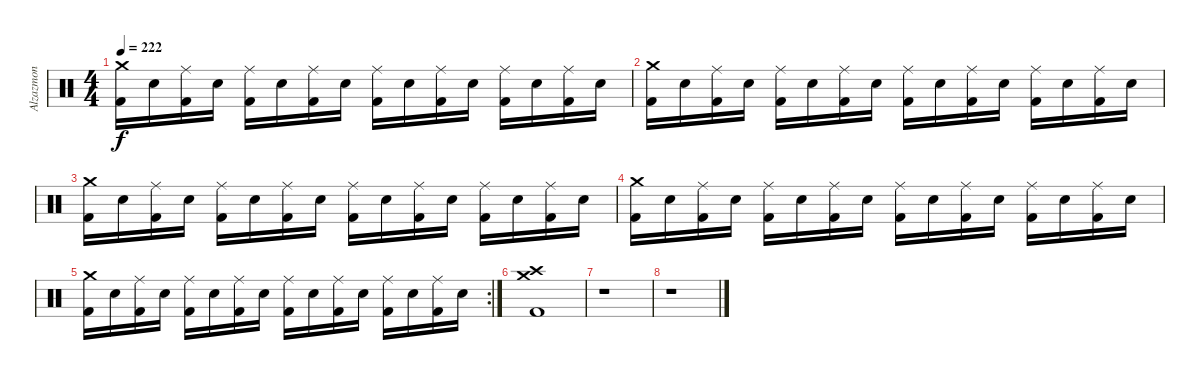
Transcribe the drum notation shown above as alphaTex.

\track ("Alzazmon" "Alzazmon") {instrument percussion}
\staff {score}
\articulation defaults
\ts (4 4)
\tempo 222
\clef neutral
\ks c
("Crash medium (hit)" "Kick (hit) 2").16{dy f} "Snare (hit) 2".16 ("Ride (middle)" "Kick (hit) 2").16 "Snare (hit) 2".16 ("Ride (middle)" "Kick (hit) 2").16 "Snare (hit) 2".16 ("Ride (middle)" "Kick (hit) 2").16 "Snare (hit) 2".16 ("Ride (middle)" "Kick (hit) 2").16 "Snare (hit) 2".16 ("Ride (middle)" "Kick (hit) 2").16 "Snare (hit) 2".16 ("Ride (middle)" "Kick (hit) 2").16 "Snare (hit) 2".16 ("Ride (middle)" "Kick (hit) 2").16 "Snare (hit) 2".16 |
("Crash medium (hit)" "Kick (hit) 2").16 "Snare (hit) 2".16 ("Ride (middle)" "Kick (hit) 2").16 "Snare (hit) 2".16 ("Ride (middle)" "Kick (hit) 2").16 "Snare (hit) 2".16 ("Ride (middle)" "Kick (hit) 2").16 "Snare (hit) 2".16 ("Ride (middle)" "Kick (hit) 2").16 "Snare (hit) 2".16 ("Ride (middle)" "Kick (hit) 2").16 "Snare (hit) 2".16 ("Ride (middle)" "Kick (hit) 2").16 "Snare (hit) 2".16 ("Ride (middle)" "Kick (hit) 2").16 "Snare (hit) 2".16 |
("Crash medium (hit)" "Kick (hit) 2").16 "Snare (hit) 2".16 ("Ride (middle)" "Kick (hit) 2").16 "Snare (hit) 2".16 ("Ride (middle)" "Kick (hit) 2").16 "Snare (hit) 2".16 ("Ride (middle)" "Kick (hit) 2").16 "Snare (hit) 2".16 ("Ride (middle)" "Kick (hit) 2").16 "Snare (hit) 2".16 ("Ride (middle)" "Kick (hit) 2").16 "Snare (hit) 2".16 ("Ride (middle)" "Kick (hit) 2").16 "Snare (hit) 2".16 ("Ride (middle)" "Kick (hit) 2").16 "Snare (hit) 2".16 |
("Crash medium (hit)" "Kick (hit) 2").16 "Snare (hit) 2".16 ("Ride (middle)" "Kick (hit) 2").16 "Snare (hit) 2".16 ("Ride (middle)" "Kick (hit) 2").16 "Snare (hit) 2".16 ("Ride (middle)" "Kick (hit) 2").16 "Snare (hit) 2".16 ("Ride (middle)" "Kick (hit) 2").16 "Snare (hit) 2".16 ("Ride (middle)" "Kick (hit) 2").16 "Snare (hit) 2".16 ("Ride (middle)" "Kick (hit) 2").16 "Snare (hit) 2".16 ("Ride (middle)" "Kick (hit) 2").16 "Snare (hit) 2".16 |
\rc 2
("Crash medium (hit)" "Kick (hit) 2").16 "Snare (hit) 2".16 ("Ride (middle)" "Kick (hit) 2").16 "Snare (hit) 2".16 ("Ride (middle)" "Kick (hit) 2").16 "Snare (hit) 2".16 ("Ride (middle)" "Kick (hit) 2").16 "Snare (hit) 2".16 ("Ride (middle)" "Kick (hit) 2").16 "Snare (hit) 2".16 ("Ride (middle)" "Kick (hit) 2").16 "Snare (hit) 2".16 ("Ride (middle)" "Kick (hit) 2").16 "Snare (hit) 2".16 ("Ride (middle)" "Kick (hit) 2").16 "Snare (hit) 2".16 |
("Crash medium (hit)" "Crash high (hit)" "Kick (hit) 2").1 |
r.1 |
r.1
